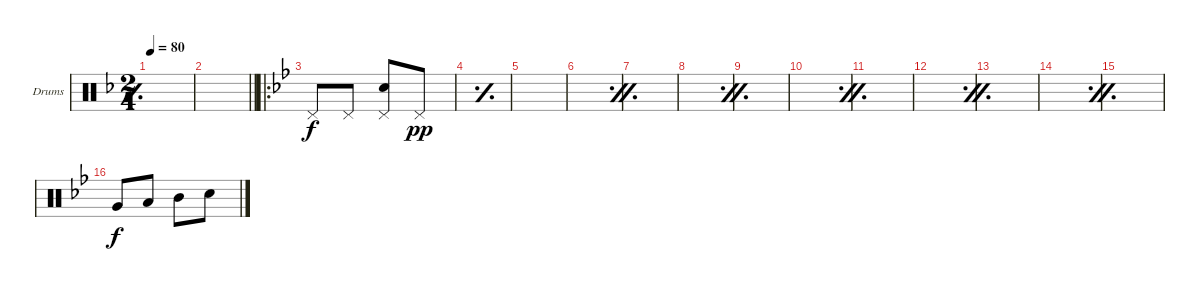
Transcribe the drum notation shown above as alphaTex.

\defaultSystemsLayout 4
\bracketExtendMode groupsimilarinstruments
\firstSystemTrackNameOrientation horizontal
\otherSystemsTrackNameOrientation horizontal
\track ("Drumkit" "Drums") {instrument percussion}
\staff {score}
\articulation defaults
\ts (2 4)
\tempo 80
\clef neutral
\simile simple
\scale
0.256881
\ks f
|
\scale
0.256881
\barLineRight lightlight
|
\ro
\simile none
\scale
0.486239
\ks bb "Pedal Hi-Hat (hit)".8 "Pedal Hi-Hat (hit)".8
("Pedal Hi-Hat (hit)" "Snare (hit) 2").8{dy f} "Pedal Hi-Hat (hit)".8{dy pp} |
\simile simple
\scale
0.333333 |
\scale
0.333333 |
\simile firstofdouble
\scale
0.333333 |
\simile secondofdouble
\scale
0.333333 |
\simile firstofdouble
\scale
0.333333 |
\simile secondofdouble
\scale
0.333333 |
\simile firstofdouble
\scale
0.333333 |
\simile secondofdouble
\scale
0.333333 |
\simile firstofdouble
\scale
0.333333 |
\simile secondofdouble
\scale
0.333333 |
\simile firstofdouble
\scale
0.333333 |
\simile secondofdouble
\scale
0.333333 |
\simile none
\scale
0.321839 "Very Low Tom (hit)".8{dy f} "Low Tom (hit)".8 "Mid Tom (hit)".8 "Snare (hit) 2".8
